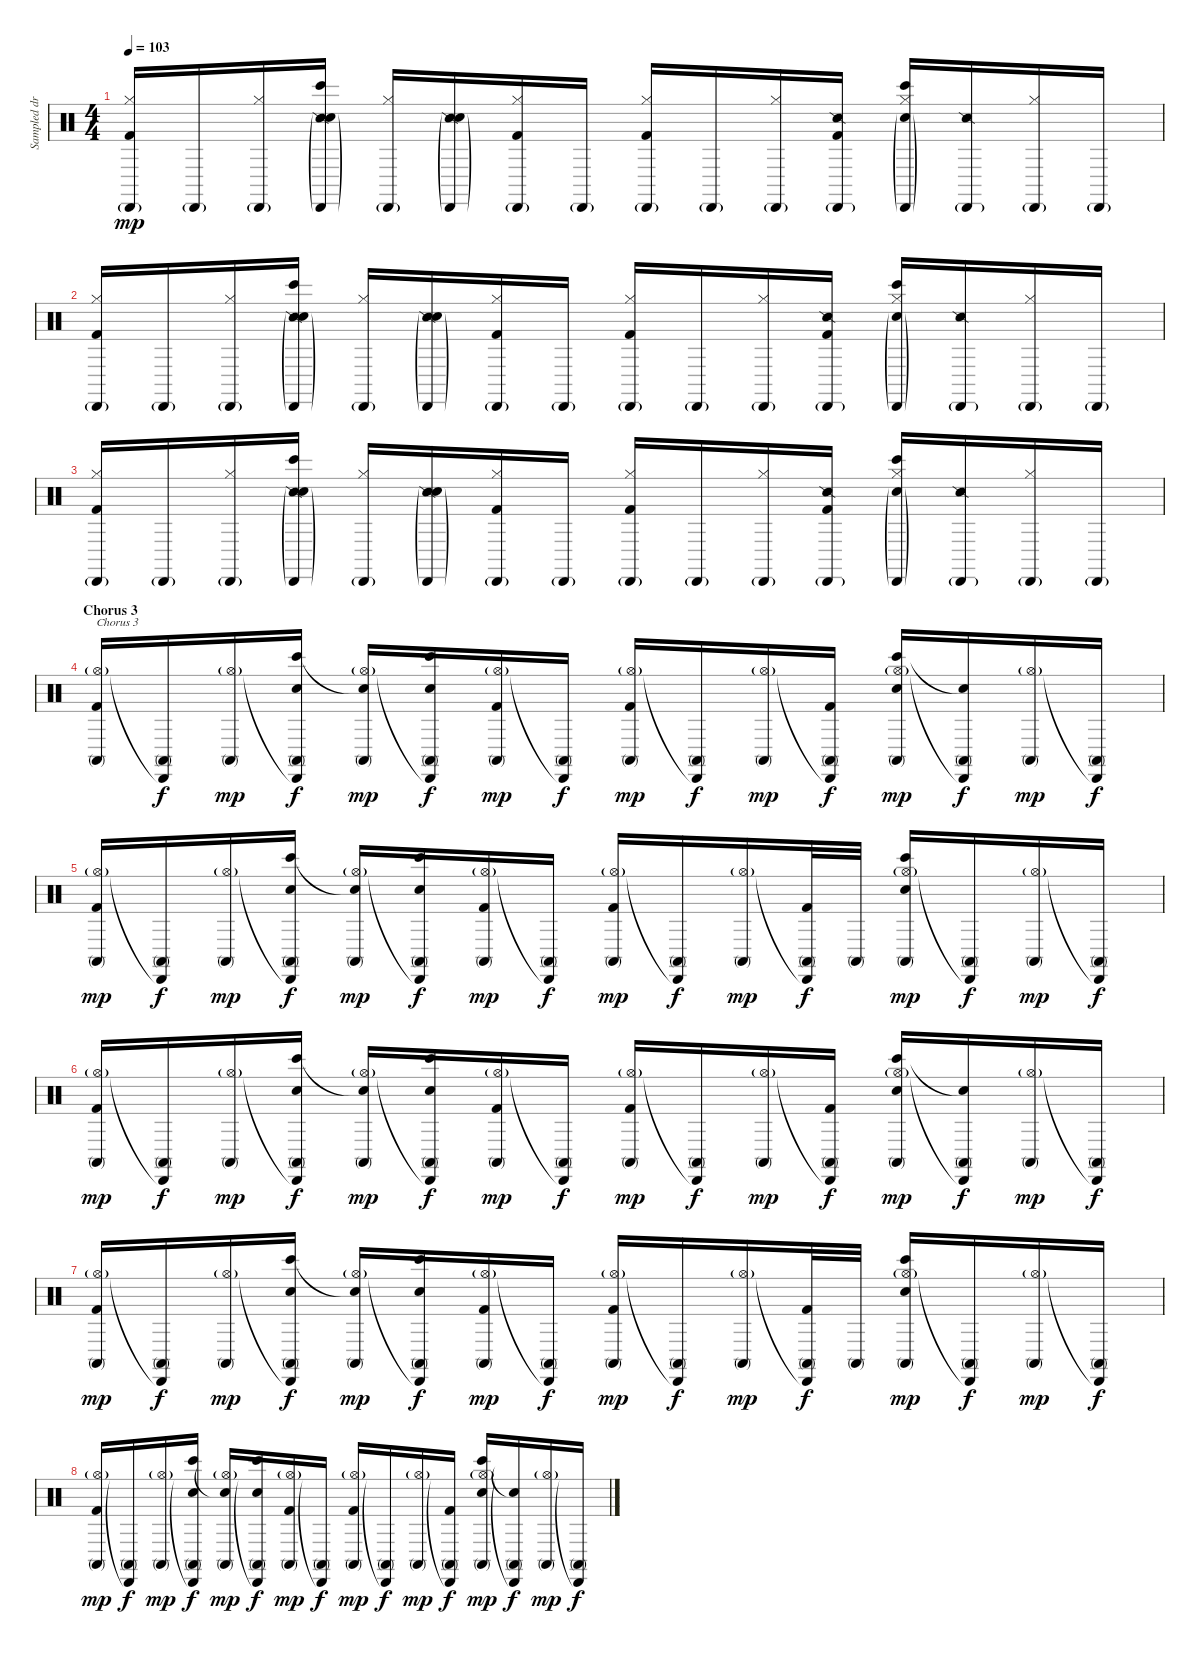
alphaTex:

\track ("Sampled drums (Rob with Joe)" "Sampled dr") {instrument percussion}
\staff {score}
\articulation defaults
\ts (4 4)
\tempo 103
\clef neutral
\ks c
("Cabasa (hit)"{g} "Hi-Hat (closed)" "Kick (hit) 2").16{dy mp} "Cabasa (hit)"{g}.16 ("Cabasa (hit)"{g} "Hi-Hat (closed)").16 ("Cabasa (hit)"{g} "Snare (side stick) 2" "Bongo High (hit)" "Snare (hit) 2"{g}).16 ("Cabasa (hit)"{g} "Hi-Hat (closed)").16 ("Cabasa (hit)"{g} "Snare (side stick) 2" "Snare (hit) 2"{g}).16 ("Cabasa (hit)"{g} "Hi-Hat (closed)" "Kick (hit) 2").16 "Cabasa (hit)"{g}.16 ("Cabasa (hit)"{g} "Hi-Hat (closed)" "Kick (hit) 2").16 "Cabasa (hit)"{g}.16 ("Cabasa (hit)"{g} "Hi-Hat (closed)").16 ("Cabasa (hit)"{g} "Snare (side stick) 2" "Kick (hit) 2").16 ("Cabasa (hit)"{g} "Hi-Hat (closed)" "Bongo High (hit)" "Snare (hit) 2"{g}).16 ("Cabasa (hit)"{g} "Snare (side stick) 2").16 ("Cabasa (hit)"{g} "Hi-Hat (closed)").16 "Cabasa (hit)"{g}.16 |
("Cabasa (hit)"{g} "Hi-Hat (closed)" "Kick (hit) 2").16 "Cabasa (hit)"{g}.16 ("Cabasa (hit)"{g} "Hi-Hat (closed)").16 ("Cabasa (hit)"{g} "Snare (side stick) 2" "Bongo High (hit)" "Snare (hit) 2"{g}).16 ("Cabasa (hit)"{g} "Hi-Hat (closed)").16 ("Cabasa (hit)"{g} "Snare (side stick) 2" "Snare (hit) 2"{g}).16 ("Cabasa (hit)"{g} "Hi-Hat (closed)" "Kick (hit) 2").16 "Cabasa (hit)"{g}.16 ("Cabasa (hit)"{g} "Hi-Hat (closed)" "Kick (hit) 2").16 "Cabasa (hit)"{g}.16 ("Cabasa (hit)"{g} "Hi-Hat (closed)").16 ("Cabasa (hit)"{g} "Snare (side stick) 2" "Kick (hit) 2").16 ("Cabasa (hit)"{g} "Hi-Hat (closed)" "Bongo High (hit)" "Snare (hit) 2"{g}).16 ("Cabasa (hit)"{g} "Snare (side stick) 2").16 ("Cabasa (hit)"{g} "Hi-Hat (closed)").16 "Cabasa (hit)"{g}.16 |
("Cabasa (hit)"{g} "Hi-Hat (closed)" "Kick (hit) 2").16 "Cabasa (hit)"{g}.16 ("Cabasa (hit)"{g} "Hi-Hat (closed)").16 ("Cabasa (hit)"{g} "Snare (side stick) 2" "Bongo High (hit)" "Snare (hit) 2"{g}).16 ("Cabasa (hit)"{g} "Hi-Hat (closed)").16 ("Cabasa (hit)"{g} "Snare (side stick) 2" "Snare (hit) 2"{g}).16 ("Cabasa (hit)"{g} "Hi-Hat (closed)" "Kick (hit) 2").16 "Cabasa (hit)"{g}.16 ("Cabasa (hit)"{g} "Hi-Hat (closed)" "Kick (hit) 2").16 "Cabasa (hit)"{g}.16 ("Cabasa (hit)"{g} "Hi-Hat (closed)").16 ("Cabasa (hit)"{g} "Snare (side stick) 2" "Kick (hit) 2").16 ("Cabasa (hit)"{g} "Hi-Hat (closed)" "Bongo High (hit)" "Snare (hit) 2"{g}).16 ("Cabasa (hit)"{g} "Snare (side stick) 2").16 ("Cabasa (hit)"{g} "Hi-Hat (closed)").16 "Cabasa (hit)"{g}.16 |
\section ("" "Chorus 3")
("Hi-Hat (open)"{g} "Conga high (mute)" "Kick (hit) 2").16{txt "Chorus 3" volume 8} ("Cabasa (hit)"{t} "Conga high (mute)").16{dy f} ("Hi-Hat (open)"{g} "Conga high (mute)").16{dy mp} ("Cabasa (hit)"{t} "Conga high (mute)" "Bongo High (hit)" "Snare (hit) 2").16{dy f} ("Hi-Hat (open)"{g} "Conga high (mute)" "Snare (hit)"{t}).16{dy mp} ("Cabasa (hit)"{t} "Conga high (mute)" "Bongo High (hit)" "Snare (hit) 2").16{dy f} ("Hi-Hat (open)"{g} "Conga high (mute)" "Kick (hit) 2").16{dy mp} ("Cabasa (hit)"{t} "Conga high (mute)").16{dy f} ("Hi-Hat (open)"{g} "Conga high (mute)" "Kick (hit) 2").16{dy mp} ("Cabasa (hit)"{t} "Conga high (mute)").16{dy f} ("Hi-Hat (open)"{g} "Conga high (mute)").16{dy mp} ("Cabasa (hit)"{t} "Conga high (mute)" "Kick (hit) 2").16{dy f} ("Hi-Hat (open)"{g} "Conga high (mute)" "Bongo High (hit)" "Snare (hit) 2").16{dy mp} ("Cabasa (hit)"{t} "Conga high (mute)" "Snare (hit)"{t}).16{dy f} ("Hi-Hat (open)"{g} "Conga high (mute)").16{dy mp} ("Cabasa (hit)"{t} "Conga high (mute)").16{dy f} |
("Hi-Hat (open)"{g} "Conga high (mute)" "Kick (hit) 2").16{dy mp} ("Cabasa (hit)"{t} "Conga high (mute)").16{dy f} ("Hi-Hat (open)"{g} "Conga high (mute)").16{dy mp} ("Cabasa (hit)"{t} "Conga high (mute)" "Bongo High (hit)" "Snare (hit) 2").16{dy f} ("Hi-Hat (open)"{g} "Conga high (mute)" "Snare (hit)"{t}).16{dy mp} ("Cabasa (hit)"{t} "Conga high (mute)" "Bongo High (hit)" "Snare (hit) 2").16{dy f} ("Hi-Hat (open)"{g} "Conga high (mute)" "Kick (hit) 2").16{dy mp} ("Cabasa (hit)"{t} "Conga high (mute)").16{dy f} ("Hi-Hat (open)"{g} "Conga high (mute)" "Kick (hit) 2").16{dy mp} ("Cabasa (hit)"{t} "Conga high (mute)").16{dy f} ("Hi-Hat (open)"{g} "Conga high (mute)").16{dy mp} ("Cabasa (hit)"{t} "Conga high (mute)" "Kick (hit) 2").32{dy f} "Conga high (mute)".32 ("Hi-Hat (open)"{g} "Conga high (mute)" "Bongo High (hit)" "Snare (hit) 2").16{dy mp} ("Cabasa (hit)"{t} "Conga high (mute)").16{dy f} ("Hi-Hat (open)"{g} "Conga high (mute)").16{dy mp} ("Cabasa (hit)"{t} "Conga high (mute)").16{dy f} |
("Hi-Hat (open)"{g} "Conga high (mute)" "Kick (hit) 2").16{dy mp} ("Cabasa (hit)"{t} "Conga high (mute)").16{dy f} ("Hi-Hat (open)"{g} "Conga high (mute)").16{dy mp} ("Cabasa (hit)"{t} "Conga high (mute)" "Bongo High (hit)" "Snare (hit) 2").16{dy f} ("Hi-Hat (open)"{g} "Conga high (mute)" "Snare (hit)"{t}).16{dy mp} ("Cabasa (hit)"{t} "Conga high (mute)" "Bongo High (hit)" "Snare (hit) 2").16{dy f} ("Hi-Hat (open)"{g} "Conga high (mute)" "Kick (hit) 2").16{dy mp} ("Cabasa (hit)"{t} "Conga high (mute)").16{dy f} ("Hi-Hat (open)"{g} "Conga high (mute)" "Kick (hit) 2").16{dy mp} ("Cabasa (hit)"{t} "Conga high (mute)").16{dy f} ("Hi-Hat (open)"{g} "Conga high (mute)").16{dy mp} ("Cabasa (hit)"{t} "Conga high (mute)" "Kick (hit) 2").16{dy f} ("Hi-Hat (open)"{g} "Conga high (mute)" "Bongo High (hit)" "Snare (hit) 2").16{dy mp} ("Cabasa (hit)"{t} "Conga high (mute)" "Snare (hit)"{t}).16{dy f} ("Hi-Hat (open)"{g} "Conga high (mute)").16{dy mp} ("Cabasa (hit)"{t} "Conga high (mute)").16{dy f} |
("Hi-Hat (open)"{g} "Conga high (mute)" "Kick (hit) 2").16{dy mp} ("Cabasa (hit)"{t} "Conga high (mute)").16{dy f} ("Hi-Hat (open)"{g} "Conga high (mute)").16{dy mp} ("Cabasa (hit)"{t} "Conga high (mute)" "Bongo High (hit)" "Snare (hit) 2").16{dy f} ("Hi-Hat (open)"{g} "Conga high (mute)" "Snare (hit)"{t}).16{dy mp} ("Cabasa (hit)"{t} "Conga high (mute)" "Bongo High (hit)" "Snare (hit) 2").16{dy f} ("Hi-Hat (open)"{g} "Conga high (mute)" "Kick (hit) 2").16{dy mp} ("Cabasa (hit)"{t} "Conga high (mute)").16{dy f} ("Hi-Hat (open)"{g} "Conga high (mute)" "Kick (hit) 2").16{dy mp} ("Cabasa (hit)"{t} "Conga high (mute)").16{dy f} ("Hi-Hat (open)"{g} "Conga high (mute)").16{dy mp} ("Cabasa (hit)"{t} "Conga high (mute)" "Kick (hit) 2").32{dy f} "Conga high (mute)".32 ("Hi-Hat (open)"{g} "Conga high (mute)" "Bongo High (hit)" "Snare (hit) 2").16{dy mp} ("Cabasa (hit)"{t} "Conga high (mute)").16{dy f} ("Hi-Hat (open)"{g} "Conga high (mute)").16{dy mp} ("Cabasa (hit)"{t} "Conga high (mute)").16{dy f} |
("Hi-Hat (open)"{g} "Conga high (mute)" "Kick (hit) 2").16{dy mp} ("Cabasa (hit)"{t} "Conga high (mute)").16{dy f} ("Hi-Hat (open)"{g} "Conga high (mute)").16{dy mp} ("Cabasa (hit)"{t} "Conga high (mute)" "Bongo High (hit)" "Snare (hit) 2").16{dy f} ("Hi-Hat (open)"{g} "Conga high (mute)" "Snare (hit)"{t}).16{dy mp} ("Cabasa (hit)"{t} "Conga high (mute)" "Bongo High (hit)" "Snare (hit) 2").16{dy f} ("Hi-Hat (open)"{g} "Conga high (mute)" "Kick (hit) 2").16{dy mp} ("Cabasa (hit)"{t} "Conga high (mute)").16{dy f} ("Hi-Hat (open)"{g} "Conga high (mute)" "Kick (hit) 2").16{dy mp} ("Cabasa (hit)"{t} "Conga high (mute)").16{dy f} ("Hi-Hat (open)"{g} "Conga high (mute)").16{dy mp} ("Cabasa (hit)"{t} "Conga high (mute)" "Kick (hit) 2").16{dy f} ("Hi-Hat (open)"{g} "Conga high (mute)" "Bongo High (hit)" "Snare (hit) 2").16{dy mp} ("Cabasa (hit)"{t} "Conga high (mute)" "Snare (hit)"{t}).16{dy f} ("Hi-Hat (open)"{g} "Conga high (mute)").16{dy mp} ("Cabasa (hit)"{t} "Conga high (mute)").16{dy f}
